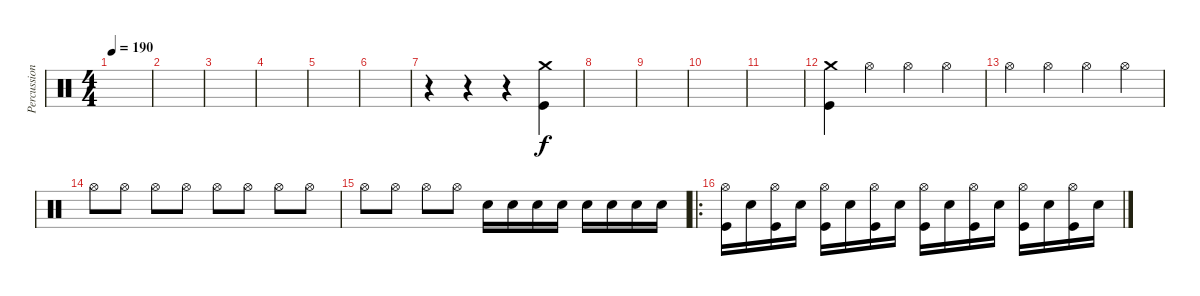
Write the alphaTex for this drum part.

\track ("Percussion" "Percussion") {instrument percussion}
\staff {score}
\articulation defaults
\ts (4 4)
\tempo 190
\clef neutral
\ks c
|
|
|
|
|
|
r.4 r.4 r.4 ("Crash medium (hit)" "Kick (hit)").4 |
|
|
|
|
("Crash medium (hit)" "Kick (hit)").4 "Hi-Hat (open)".4 "Hi-Hat (open)".4 "Hi-Hat (open)".4 |
"Hi-Hat (open)".4 "Hi-Hat (open)".4 "Hi-Hat (open)".4 "Hi-Hat (open)".4 |
"Hi-Hat (open)".8 "Hi-Hat (open)".8 "Hi-Hat (open)".8 "Hi-Hat (open)".8 "Hi-Hat (open)".8 "Hi-Hat (open)".8 "Hi-Hat (open)".8 "Hi-Hat (open)".8 |
"Hi-Hat (open)".8 "Hi-Hat (open)".8 "Hi-Hat (open)".8 "Hi-Hat (open)".8 "Snare (hit) 2".16 "Snare (hit) 2".16 "Snare (hit) 2".16 "Snare (hit) 2".16 "Snare (hit) 2".16 "Snare (hit) 2".16 "Snare (hit) 2".16 "Snare (hit) 2".16 |
\ro
("Hi-Hat (open)" "Kick (hit)").16 "Snare (hit) 2".16 ("Hi-Hat (open)" "Kick (hit)").16 "Snare (hit) 2".16 ("Hi-Hat (open)" "Kick (hit)").16 "Snare (hit) 2".16 ("Hi-Hat (open)" "Kick (hit)").16 "Snare (hit) 2".16 ("Hi-Hat (open)" "Kick (hit)").16 "Snare (hit) 2".16 ("Hi-Hat (open)" "Kick (hit)").16 "Snare (hit) 2".16 ("Hi-Hat (open)" "Kick (hit)").16 "Snare (hit) 2".16 ("Hi-Hat (open)" "Kick (hit)").16 "Snare (hit) 2".16
